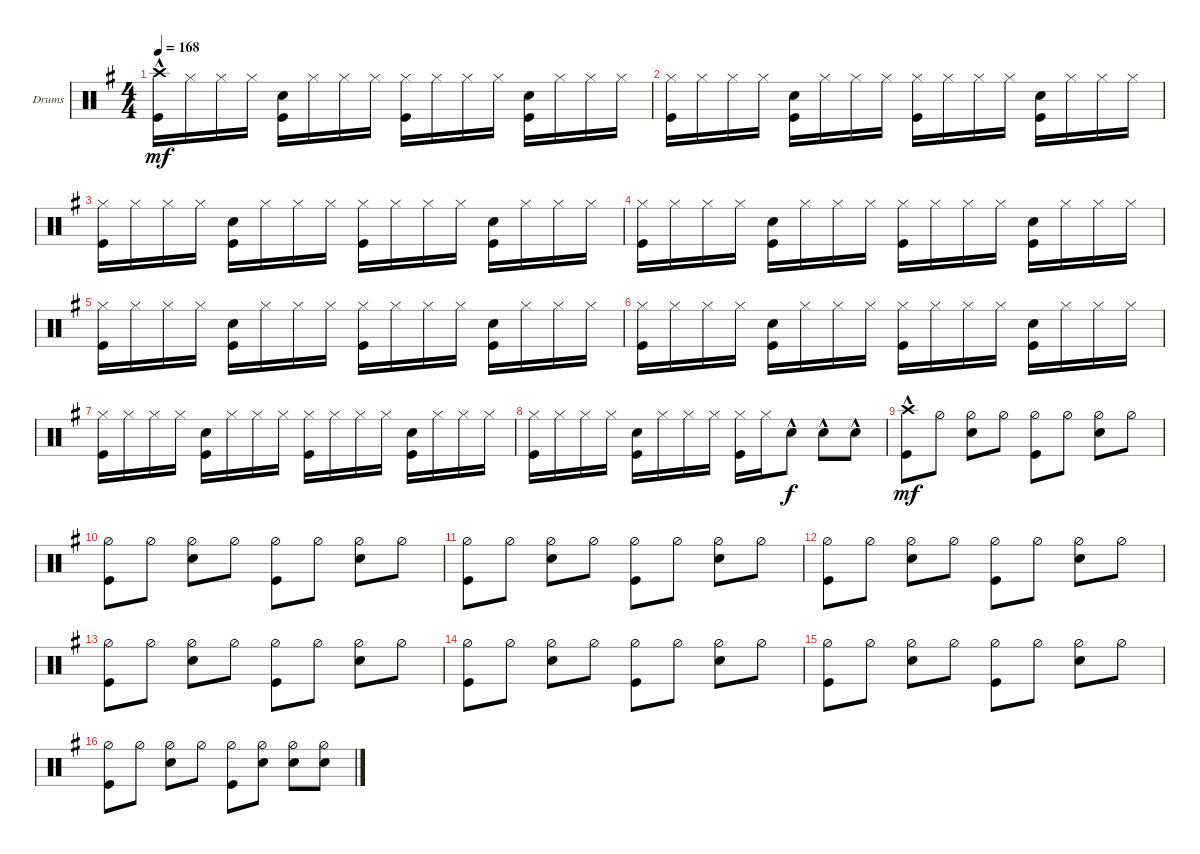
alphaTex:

\defaultSystemsLayout 4
\bracketExtendMode groupsimilarinstruments
\firstSystemTrackNameOrientation horizontal
\otherSystemsTrackNameOrientation horizontal
\track ("Drumkit" "Drums") {instrument percussion}
\staff {score}
\articulation defaults
\ts (4 4)
\tempo 168
\clef neutral
\ks eminor
("Crash high (hit)"{hac} "Kick (hit)").16{dy mf} "Hi-Hat (closed)".16 "Hi-Hat (closed)".16 "Hi-Hat (closed)".16 ("Snare (hit) 2" "Kick (hit)").16 "Hi-Hat (closed)".16 "Hi-Hat (closed)".16 "Hi-Hat (closed)".16 ("Hi-Hat (closed)" "Kick (hit)").16 "Hi-Hat (closed)".16 "Hi-Hat (closed)".16 "Hi-Hat (closed)".16 ("Snare (hit) 2" "Kick (hit)").16 "Hi-Hat (closed)".16 "Hi-Hat (closed)".16 "Hi-Hat (closed)".16 |
("Hi-Hat (closed)" "Kick (hit)").16 "Hi-Hat (closed)".16 "Hi-Hat (closed)".16 "Hi-Hat (closed)".16 ("Snare (hit) 2" "Kick (hit)").16 "Hi-Hat (closed)".16 "Hi-Hat (closed)".16 "Hi-Hat (closed)".16 ("Hi-Hat (closed)" "Kick (hit)").16 "Hi-Hat (closed)".16 "Hi-Hat (closed)".16 "Hi-Hat (closed)".16 ("Snare (hit) 2" "Kick (hit)").16 "Hi-Hat (closed)".16 "Hi-Hat (closed)".16 "Hi-Hat (closed)".16 |
("Hi-Hat (closed)" "Kick (hit)").16 "Hi-Hat (closed)".16 "Hi-Hat (closed)".16 "Hi-Hat (closed)".16 ("Snare (hit) 2" "Kick (hit)").16 "Hi-Hat (closed)".16 "Hi-Hat (closed)".16 "Hi-Hat (closed)".16 ("Hi-Hat (closed)" "Kick (hit)").16 "Hi-Hat (closed)".16 "Hi-Hat (closed)".16 "Hi-Hat (closed)".16 ("Snare (hit) 2" "Kick (hit)").16 "Hi-Hat (closed)".16 "Hi-Hat (closed)".16 "Hi-Hat (closed)".16 |
("Hi-Hat (closed)" "Kick (hit)").16 "Hi-Hat (closed)".16 "Hi-Hat (closed)".16 "Hi-Hat (closed)".16 ("Snare (hit) 2" "Kick (hit)").16 "Hi-Hat (closed)".16 "Hi-Hat (closed)".16 "Hi-Hat (closed)".16 ("Hi-Hat (closed)" "Kick (hit)").16 "Hi-Hat (closed)".16 "Hi-Hat (closed)".16 "Hi-Hat (closed)".16 ("Snare (hit) 2" "Kick (hit)").16 "Hi-Hat (closed)".16 "Hi-Hat (closed)".16 "Hi-Hat (closed)".16 |
("Hi-Hat (closed)" "Kick (hit)").16 "Hi-Hat (closed)".16 "Hi-Hat (closed)".16 "Hi-Hat (closed)".16 ("Snare (hit) 2" "Kick (hit)").16 "Hi-Hat (closed)".16 "Hi-Hat (closed)".16 "Hi-Hat (closed)".16 ("Hi-Hat (closed)" "Kick (hit)").16 "Hi-Hat (closed)".16 "Hi-Hat (closed)".16 "Hi-Hat (closed)".16 ("Snare (hit) 2" "Kick (hit)").16 "Hi-Hat (closed)".16 "Hi-Hat (closed)".16 "Hi-Hat (closed)".16 |
("Hi-Hat (closed)" "Kick (hit)").16 "Hi-Hat (closed)".16 "Hi-Hat (closed)".16 "Hi-Hat (closed)".16 ("Snare (hit) 2" "Kick (hit)").16 "Hi-Hat (closed)".16 "Hi-Hat (closed)".16 "Hi-Hat (closed)".16 ("Hi-Hat (closed)" "Kick (hit)").16 "Hi-Hat (closed)".16 "Hi-Hat (closed)".16 "Hi-Hat (closed)".16 ("Snare (hit) 2" "Kick (hit)").16 "Hi-Hat (closed)".16 "Hi-Hat (closed)".16 "Hi-Hat (closed)".16 |
("Hi-Hat (closed)" "Kick (hit)").16 "Hi-Hat (closed)".16 "Hi-Hat (closed)".16 "Hi-Hat (closed)".16 ("Snare (hit) 2" "Kick (hit)").16 "Hi-Hat (closed)".16 "Hi-Hat (closed)".16 "Hi-Hat (closed)".16 ("Hi-Hat (closed)" "Kick (hit)").16 "Hi-Hat (closed)".16 "Hi-Hat (closed)".16 "Hi-Hat (closed)".16 ("Snare (hit) 2" "Kick (hit)").16 "Hi-Hat (closed)".16 "Hi-Hat (closed)".16 "Hi-Hat (closed)".16 |
("Hi-Hat (closed)" "Kick (hit)").16 "Hi-Hat (closed)".16 "Hi-Hat (closed)".16 "Hi-Hat (closed)".16 ("Snare (hit) 2" "Kick (hit)").16 "Hi-Hat (closed)".16 "Hi-Hat (closed)".16 "Hi-Hat (closed)".16 ("Hi-Hat (closed)" "Kick (hit)").16 "Hi-Hat (closed)".16 "Snare (hit) 2"{hac}.8{dy f} "Snare (hit) 2"{hac}.8 "Snare (hit) 2"{hac}.8 |
("Kick (hit)" "Crash high (hit)"{hac}).8{dy mf} "Hi-Hat (half)".8 ("Hi-Hat (half)" "Snare (hit) 2").8 "Hi-Hat (half)".8 ("Hi-Hat (half)" "Kick (hit)").8 "Hi-Hat (half)".8 ("Hi-Hat (half)" "Snare (hit) 2").8 "Hi-Hat (half)".8 |
("Hi-Hat (half)" "Kick (hit)").8 "Hi-Hat (half)".8 ("Hi-Hat (half)" "Snare (hit) 2").8 "Hi-Hat (half)".8 ("Hi-Hat (half)" "Kick (hit)").8 "Hi-Hat (half)".8 ("Hi-Hat (half)" "Snare (hit) 2").8 "Hi-Hat (half)".8 |
("Hi-Hat (half)" "Kick (hit)").8 "Hi-Hat (half)".8 ("Hi-Hat (half)" "Snare (hit) 2").8 "Hi-Hat (half)".8 ("Hi-Hat (half)" "Kick (hit)").8 "Hi-Hat (half)".8 ("Hi-Hat (half)" "Snare (hit) 2").8 "Hi-Hat (half)".8 |
("Hi-Hat (half)" "Kick (hit)").8 "Hi-Hat (half)".8 ("Hi-Hat (half)" "Snare (hit) 2").8 "Hi-Hat (half)".8 ("Hi-Hat (half)" "Kick (hit)").8 "Hi-Hat (half)".8 ("Hi-Hat (half)" "Snare (hit) 2").8 "Hi-Hat (half)".8 |
("Hi-Hat (half)" "Kick (hit)").8 "Hi-Hat (half)".8 ("Hi-Hat (half)" "Snare (hit) 2").8 "Hi-Hat (half)".8 ("Hi-Hat (half)" "Kick (hit)").8 "Hi-Hat (half)".8 ("Hi-Hat (half)" "Snare (hit) 2").8 "Hi-Hat (half)".8 |
("Hi-Hat (half)" "Kick (hit)").8 "Hi-Hat (half)".8 ("Hi-Hat (half)" "Snare (hit) 2").8 "Hi-Hat (half)".8 ("Hi-Hat (half)" "Kick (hit)").8 "Hi-Hat (half)".8 ("Hi-Hat (half)" "Snare (hit) 2").8 "Hi-Hat (half)".8 |
("Hi-Hat (half)" "Kick (hit)").8 "Hi-Hat (half)".8 ("Hi-Hat (half)" "Snare (hit) 2").8 "Hi-Hat (half)".8 ("Hi-Hat (half)" "Kick (hit)").8 "Hi-Hat (half)".8 ("Hi-Hat (half)" "Snare (hit) 2").8 "Hi-Hat (half)".8 |
("Hi-Hat (half)" "Kick (hit)").8 "Hi-Hat (half)".8 ("Hi-Hat (half)" "Snare (hit) 2").8 "Hi-Hat (half)".8 ("Hi-Hat (half)" "Kick (hit)").8 ("Hi-Hat (half)" "Snare (hit) 2").8 ("Hi-Hat (half)" "Snare (hit) 2").8 ("Hi-Hat (half)" "Snare (hit) 2").8
